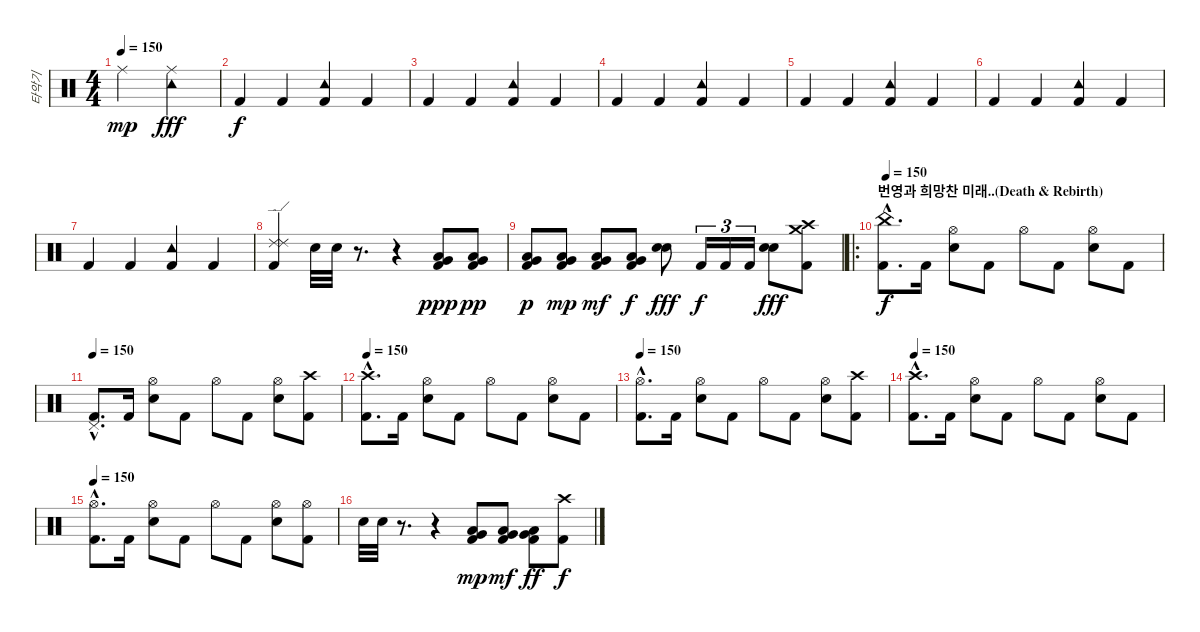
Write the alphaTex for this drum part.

\track ("타악기" "타악기") {instrument percussion}
\staff {score}
\articulation defaults
\ts (4 4)
\tempo 150
\clef neutral
\ks c "Ride (middle)".2{dy mp}
("Ride (middle)" "Tambourine (hit)").2{dy fff} |
"Kick (hit) 2".4{dy f} "Kick (hit) 2".4 ("Tambourine (hit)" "Kick (hit) 2").4 "Kick (hit) 2".4 |
"Kick (hit) 2".4 "Kick (hit) 2".4 ("Tambourine (hit)" "Kick (hit) 2").4 "Kick (hit) 2".4 |
"Kick (hit) 2".4 "Kick (hit) 2".4 ("Tambourine (hit)" "Kick (hit) 2").4 "Kick (hit) 2".4 |
"Kick (hit) 2".4 "Kick (hit) 2".4 ("Tambourine (hit)" "Kick (hit) 2").4 "Kick (hit) 2".4 |
"Kick (hit) 2".4 "Kick (hit) 2".4 ("Tambourine (hit)" "Kick (hit) 2").4 "Kick (hit) 2".4 |
"Kick (hit) 2".4 "Kick (hit) 2".4 ("Tambourine (hit)" "Kick (hit) 2").4 "Kick (hit) 2".4 |
("Ride (edge) 2" "Ride (edge) 2" "Kick (hit) 2").4 "Snare (hit) 2".32 "Snare (hit) 2".32 r.8{d} r.4 ("Very Low Tom (hit)" "Low Floor Tom (hit)" "Kick (hit) 2").8{dy ppp} ("Very Low Tom (hit)" "Low Floor Tom (hit)" "Kick (hit) 2").8{dy pp} |
("Low Floor Tom (hit)" "Very Low Tom (hit)" "Kick (hit) 2").8{dy p} ("Very Low Tom (hit)" "Low Floor Tom (hit)" "Kick (hit) 2").8{dy mp} ("Kick (hit) 2" "Very Low Tom (hit)" "Low Floor Tom (hit)").8{dy mf} ("Kick (hit) 2" "Low Floor Tom (hit)" "Very Low Tom (hit)").8{dy f} ("Snare (hit) 2" "Electric Snare (hit)").8{dy fff} "Kick (hit) 2".16{tu (3 2) dy f} "Kick (hit) 2".16{tu (3 2)} "Kick (hit) 2".16{tu (3 2)} ("Snare (hit) 2" "Electric Snare (hit)").8{dy fff} ("Crash medium (hit)" "Kick (hit) 2" "Crash high (hit)").8 |
\ro
\section ("" "번영과 희망찬 미래..(Death & Rebirth)")
\tempo 150
("China (hit)"{hac} "Kick (hit) 2"{hac}).8{d dy f} "Kick (hit) 2".16 ("Hi-Hat (open)" "Snare (hit) 2").8 "Kick (hit) 2".8 "Hi-Hat (open)".8 "Kick (hit) 2".8 ("Hi-Hat (open)" "Snare (hit) 2").8 "Kick (hit) 2".8 |
\tempo 150
("Pedal Hi-Hat (hit)"{hac} "Kick (hit) 2"{hac}).8{d} "Kick (hit) 2".16 ("Hi-Hat (open)" "Snare (hit) 2").8 "Kick (hit) 2".8 "Hi-Hat (open)".8 "Kick (hit) 2".8 ("Hi-Hat (open)" "Snare (hit) 2").8 ("Crash high (hit)" "Kick (hit) 2").8 |
\tempo 150
("Crash high (hit)"{hac} "Kick (hit) 2"{hac}).8{d} "Kick (hit) 2".16 ("Hi-Hat (open)" "Snare (hit) 2").8 "Kick (hit) 2".8 "Hi-Hat (open)".8 "Kick (hit) 2".8 ("Hi-Hat (open)" "Snare (hit) 2").8 "Kick (hit) 2".8 |
\tempo 150
("Hi-Hat (open)"{hac} "Kick (hit) 2"{hac}).8{d} "Kick (hit) 2".16 ("Hi-Hat (open)" "Snare (hit) 2").8 "Kick (hit) 2".8 "Hi-Hat (open)".8 "Kick (hit) 2".8 ("Hi-Hat (open)" "Snare (hit) 2").8 ("Crash high (hit)" "Kick (hit) 2").8 |
\tempo 150
("Crash high (hit)"{hac} "Kick (hit) 2"{hac}).8{d} "Kick (hit) 2".16 ("Hi-Hat (open)" "Snare (hit) 2").8 "Kick (hit) 2".8 "Hi-Hat (open)".8 "Kick (hit) 2".8 ("Hi-Hat (open)" "Snare (hit) 2").8 "Kick (hit) 2".8 |
\tempo 150
("Hi-Hat (open)"{hac} "Kick (hit) 2"{hac}).8{d} "Kick (hit) 2".16 ("Hi-Hat (open)" "Snare (hit) 2").8 "Kick (hit) 2".8 "Hi-Hat (open)".8 "Kick (hit) 2".8 ("Hi-Hat (open)" "Snare (hit) 2").8 ("Hi-Hat (open)" "Kick (hit) 2").8 |
"Snare (hit) 2".32 "Snare (hit) 2".32 r.8{d} r.4 ("Low Floor Tom (hit)" "Very Low Tom (hit)" "Kick (hit) 2").8{dy mp} ("Low Floor Tom (hit)" "Very Low Tom (hit)" "Kick (hit) 2").8{dy mf} ("Low Floor Tom (hit)" "Very Low Tom (hit)" "Kick (hit) 2").8{dy ff} ("Kick (hit) 2" "Crash high (hit)").8{dy f}
